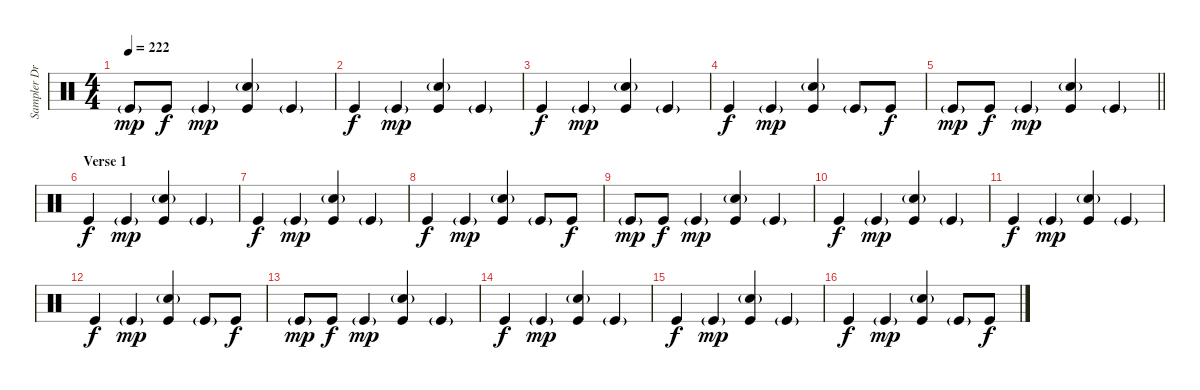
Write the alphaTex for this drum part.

\track ("Sampler Drums 1" "Sampler Dr") {instrument percussion}
\staff {score}
\articulation defaults
\ts (4 4)
\tempo 222
\clef neutral
\ks c "Kick (hit)"{g}.8{dy mp} "Kick (hit)".8{dy f} "Kick (hit)"{g}.4{dy mp}
("Kick (hit)" "Snare (hit) 2"{g}).4 "Kick (hit)"{g}.4 |
"Kick (hit)".4{dy f} "Kick (hit)"{g}.4{dy mp} ("Kick (hit)" "Snare (hit) 2"{g}).4 "Kick (hit)"{g}.4 |
"Kick (hit)".4{dy f} "Kick (hit)"{g}.4{dy mp} ("Kick (hit)" "Snare (hit) 2"{g}).4 "Kick (hit)"{g}.4 |
"Kick (hit)".4{dy f} "Kick (hit)"{g}.4{dy mp} ("Kick (hit)" "Snare (hit) 2"{g}).4 "Kick (hit)"{g}.8 "Kick (hit)".8{dy f} |
\barLineRight lightlight "Kick (hit)"{g}.8{dy mp} "Kick (hit)".8{dy f} "Kick (hit)"{g}.4{dy mp}
("Kick (hit)" "Snare (hit) 2"{g}).4 "Kick (hit)"{g}.4 |
\section ("" "Verse 1")
"Kick (hit)".4{dy f} "Kick (hit)"{g}.4{dy mp} ("Kick (hit)" "Snare (hit) 2"{g}).4 "Kick (hit)"{g}.4 |
"Kick (hit)".4{dy f} "Kick (hit)"{g}.4{dy mp} ("Kick (hit)" "Snare (hit) 2"{g}).4 "Kick (hit)"{g}.4 |
"Kick (hit)".4{dy f} "Kick (hit)"{g}.4{dy mp} ("Kick (hit)" "Snare (hit) 2"{g}).4 "Kick (hit)"{g}.8 "Kick (hit)".8{dy f} |
"Kick (hit)"{g}.8{dy mp} "Kick (hit)".8{dy f} "Kick (hit)"{g}.4{dy mp} ("Kick (hit)" "Snare (hit) 2"{g}).4 "Kick (hit)"{g}.4 |
"Kick (hit)".4{dy f} "Kick (hit)"{g}.4{dy mp} ("Kick (hit)" "Snare (hit) 2"{g}).4 "Kick (hit)"{g}.4 |
"Kick (hit)".4{dy f} "Kick (hit)"{g}.4{dy mp} ("Kick (hit)" "Snare (hit) 2"{g}).4 "Kick (hit)"{g}.4 |
"Kick (hit)".4{dy f} "Kick (hit)"{g}.4{dy mp} ("Kick (hit)" "Snare (hit) 2"{g}).4 "Kick (hit)"{g}.8 "Kick (hit)".8{dy f} |
"Kick (hit)"{g}.8{dy mp} "Kick (hit)".8{dy f} "Kick (hit)"{g}.4{dy mp} ("Kick (hit)" "Snare (hit) 2"{g}).4 "Kick (hit)"{g}.4 |
"Kick (hit)".4{dy f} "Kick (hit)"{g}.4{dy mp} ("Kick (hit)" "Snare (hit) 2"{g}).4 "Kick (hit)"{g}.4 |
"Kick (hit)".4{dy f} "Kick (hit)"{g}.4{dy mp} ("Kick (hit)" "Snare (hit) 2"{g}).4 "Kick (hit)"{g}.4 |
"Kick (hit)".4{dy f} "Kick (hit)"{g}.4{dy mp} ("Kick (hit)" "Snare (hit) 2"{g}).4 "Kick (hit)"{g}.8 "Kick (hit)".8{dy f}
